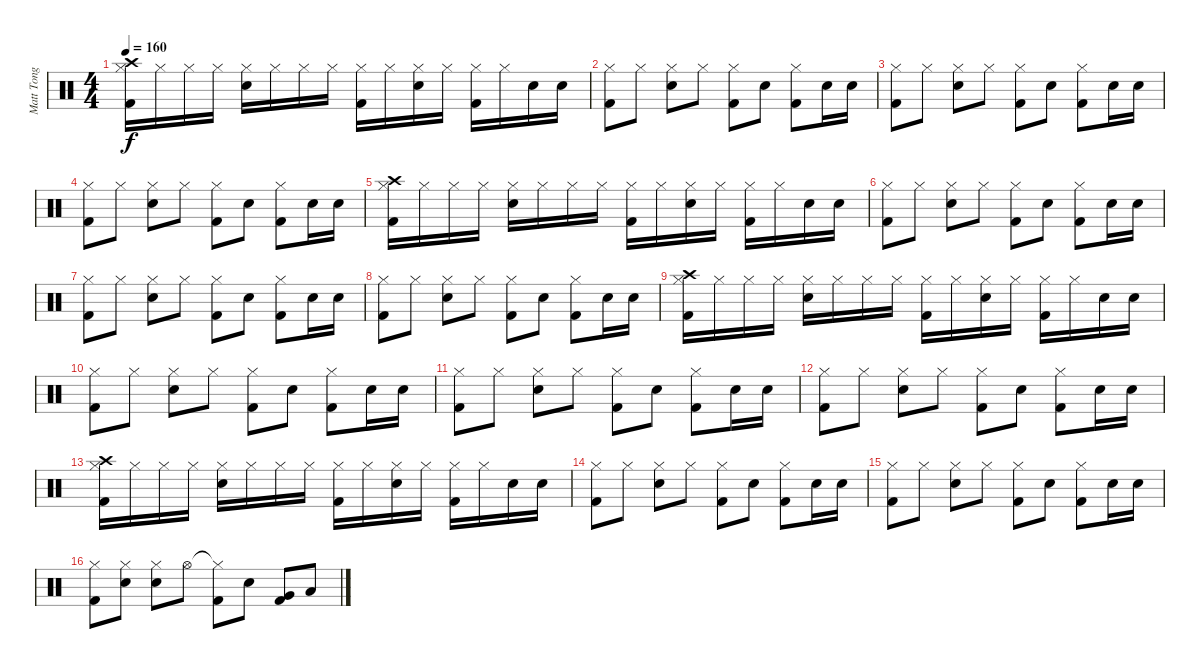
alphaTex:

\track ("Matt Tong" "Matt Tong") {instrument percussion}
\staff {score}
\articulation defaults
\ts (4 4)
\tempo 160
\clef neutral
\ks c
("Crash high (hit)" "Hi-Hat (closed)" "Kick (hit) 2").16{dy f} "Hi-Hat (closed)".16 "Hi-Hat (closed)".16 "Hi-Hat (closed)".16 ("Hi-Hat (closed)" "Electric Snare (hit)").16 "Hi-Hat (closed)".16 "Hi-Hat (closed)".16 "Hi-Hat (closed)".16 ("Hi-Hat (closed)" "Kick (hit) 2").16 "Hi-Hat (closed)".16 ("Hi-Hat (closed)" "Electric Snare (hit)").16 "Hi-Hat (closed)".16 ("Hi-Hat (closed)" "Kick (hit) 2").16 "Hi-Hat (closed)".16 "Electric Snare (hit)".16 "Electric Snare (hit)".16 |
("Hi-Hat (closed)" "Kick (hit) 2").8 "Hi-Hat (closed)".8 ("Hi-Hat (closed)" "Electric Snare (hit)").8 "Hi-Hat (closed)".8 ("Hi-Hat (closed)" "Kick (hit) 2").8 "Electric Snare (hit)".8 ("Hi-Hat (closed)" "Kick (hit) 2").8 "Electric Snare (hit)".16 "Electric Snare (hit)".16 |
("Hi-Hat (closed)" "Kick (hit) 2").8 "Hi-Hat (closed)".8 ("Hi-Hat (closed)" "Electric Snare (hit)").8 "Hi-Hat (closed)".8 ("Hi-Hat (closed)" "Kick (hit) 2").8 "Electric Snare (hit)".8 ("Hi-Hat (closed)" "Kick (hit) 2").8 "Electric Snare (hit)".16 "Electric Snare (hit)".16 |
("Hi-Hat (closed)" "Kick (hit) 2").8 "Hi-Hat (closed)".8 ("Hi-Hat (closed)" "Electric Snare (hit)").8 "Hi-Hat (closed)".8 ("Hi-Hat (closed)" "Kick (hit) 2").8 "Electric Snare (hit)".8 ("Hi-Hat (closed)" "Kick (hit) 2").8 "Electric Snare (hit)".16 "Electric Snare (hit)".16 |
("Crash high (hit)" "Hi-Hat (closed)" "Kick (hit) 2").16 "Hi-Hat (closed)".16 "Hi-Hat (closed)".16 "Hi-Hat (closed)".16 ("Hi-Hat (closed)" "Electric Snare (hit)").16 "Hi-Hat (closed)".16 "Hi-Hat (closed)".16 "Hi-Hat (closed)".16 ("Hi-Hat (closed)" "Kick (hit) 2").16 "Hi-Hat (closed)".16 ("Hi-Hat (closed)" "Electric Snare (hit)").16 "Hi-Hat (closed)".16 ("Hi-Hat (closed)" "Kick (hit) 2").16 "Hi-Hat (closed)".16 "Electric Snare (hit)".16 "Electric Snare (hit)".16 |
("Hi-Hat (closed)" "Kick (hit) 2").8 "Hi-Hat (closed)".8 ("Hi-Hat (closed)" "Electric Snare (hit)").8 "Hi-Hat (closed)".8 ("Hi-Hat (closed)" "Kick (hit) 2").8 "Electric Snare (hit)".8 ("Hi-Hat (closed)" "Kick (hit) 2").8 "Electric Snare (hit)".16 "Electric Snare (hit)".16 |
("Hi-Hat (closed)" "Kick (hit) 2").8 "Hi-Hat (closed)".8 ("Hi-Hat (closed)" "Electric Snare (hit)").8 "Hi-Hat (closed)".8 ("Hi-Hat (closed)" "Kick (hit) 2").8 "Electric Snare (hit)".8 ("Hi-Hat (closed)" "Kick (hit) 2").8 "Electric Snare (hit)".16 "Electric Snare (hit)".16 |
("Hi-Hat (closed)" "Kick (hit) 2").8 "Hi-Hat (closed)".8 ("Hi-Hat (closed)" "Electric Snare (hit)").8 "Hi-Hat (closed)".8 ("Hi-Hat (closed)" "Kick (hit) 2").8 "Electric Snare (hit)".8 ("Hi-Hat (closed)" "Kick (hit) 2").8 "Electric Snare (hit)".16 "Electric Snare (hit)".16 |
("Crash high (hit)" "Hi-Hat (closed)" "Kick (hit) 2").16 "Hi-Hat (closed)".16 "Hi-Hat (closed)".16 "Hi-Hat (closed)".16 ("Hi-Hat (closed)" "Electric Snare (hit)").16 "Hi-Hat (closed)".16 "Hi-Hat (closed)".16 "Hi-Hat (closed)".16 ("Hi-Hat (closed)" "Kick (hit) 2").16 "Hi-Hat (closed)".16 ("Hi-Hat (closed)" "Electric Snare (hit)").16 "Hi-Hat (closed)".16 ("Hi-Hat (closed)" "Kick (hit) 2").16 "Hi-Hat (closed)".16 "Electric Snare (hit)".16 "Electric Snare (hit)".16 |
("Hi-Hat (closed)" "Kick (hit) 2").8 "Hi-Hat (closed)".8 ("Hi-Hat (closed)" "Electric Snare (hit)").8 "Hi-Hat (closed)".8 ("Hi-Hat (closed)" "Kick (hit) 2").8 "Electric Snare (hit)".8 ("Hi-Hat (closed)" "Kick (hit) 2").8 "Electric Snare (hit)".16 "Electric Snare (hit)".16 |
("Hi-Hat (closed)" "Kick (hit) 2").8 "Hi-Hat (closed)".8 ("Hi-Hat (closed)" "Electric Snare (hit)").8 "Hi-Hat (closed)".8 ("Hi-Hat (closed)" "Kick (hit) 2").8 "Electric Snare (hit)".8 ("Hi-Hat (closed)" "Kick (hit) 2").8 "Electric Snare (hit)".16 "Electric Snare (hit)".16 |
("Hi-Hat (closed)" "Kick (hit) 2").8 "Hi-Hat (closed)".8 ("Hi-Hat (closed)" "Electric Snare (hit)").8 "Hi-Hat (closed)".8 ("Hi-Hat (closed)" "Kick (hit) 2").8 "Electric Snare (hit)".8 ("Hi-Hat (closed)" "Kick (hit) 2").8 "Electric Snare (hit)".16 "Electric Snare (hit)".16 |
("Crash high (hit)" "Hi-Hat (closed)" "Kick (hit) 2").16 "Hi-Hat (closed)".16 "Hi-Hat (closed)".16 "Hi-Hat (closed)".16 ("Hi-Hat (closed)" "Electric Snare (hit)").16 "Hi-Hat (closed)".16 "Hi-Hat (closed)".16 "Hi-Hat (closed)".16 ("Hi-Hat (closed)" "Kick (hit) 2").16 "Hi-Hat (closed)".16 ("Hi-Hat (closed)" "Electric Snare (hit)").16 "Hi-Hat (closed)".16 ("Hi-Hat (closed)" "Kick (hit) 2").16 "Hi-Hat (closed)".16 "Electric Snare (hit)".16 "Electric Snare (hit)".16 |
("Hi-Hat (closed)" "Kick (hit) 2").8 "Hi-Hat (closed)".8 ("Hi-Hat (closed)" "Electric Snare (hit)").8 "Hi-Hat (closed)".8 ("Hi-Hat (closed)" "Kick (hit) 2").8 "Electric Snare (hit)".8 ("Hi-Hat (closed)" "Kick (hit) 2").8 "Electric Snare (hit)".16 "Electric Snare (hit)".16 |
("Hi-Hat (closed)" "Kick (hit) 2").8 "Hi-Hat (closed)".8 ("Hi-Hat (closed)" "Electric Snare (hit)").8 "Hi-Hat (closed)".8 ("Hi-Hat (closed)" "Kick (hit) 2").8 "Electric Snare (hit)".8 ("Hi-Hat (closed)" "Kick (hit) 2").8 "Electric Snare (hit)".16 "Electric Snare (hit)".16 |
("Hi-Hat (closed)" "Kick (hit) 2").8 ("Hi-Hat (closed)" "Electric Snare (hit)").8 ("Hi-Hat (closed)" "Electric Snare (hit)").8 "Hi-Hat (open)".8 ("Hi-Hat (closed)"{t} "Kick (hit) 2").8 "Electric Snare (hit)".8 ("Very Low Tom (hit)" "Kick (hit) 2").8 "Low Floor Tom (hit)".8
